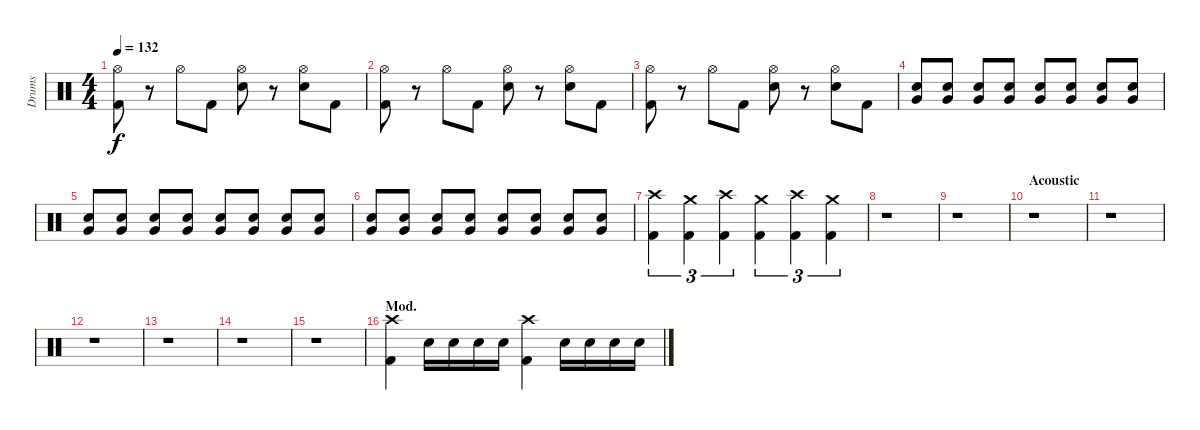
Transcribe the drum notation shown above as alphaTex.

\track ("Drums" "Drums") {instrument percussion}
\staff {score}
\articulation defaults
\ts (4 4)
\tempo 132
\clef neutral
\ks c
("Hi-Hat (open)" "Kick (hit) 2").8{dy f} r.8 "Hi-Hat (open)".8 "Kick (hit) 2".8 ("Hi-Hat (open)" "Snare (hit) 2").8 r.8 ("Hi-Hat (open)" "Snare (hit) 2").8 "Kick (hit) 2".8 |
("Hi-Hat (open)" "Kick (hit) 2").8 r.8 "Hi-Hat (open)".8 "Kick (hit) 2".8 ("Hi-Hat (open)" "Snare (hit) 2").8 r.8 ("Hi-Hat (open)" "Snare (hit) 2").8 "Kick (hit) 2".8 |
("Hi-Hat (open)" "Kick (hit) 2").8 r.8 "Hi-Hat (open)".8 "Kick (hit) 2".8 ("Hi-Hat (open)" "Snare (hit) 2").8 r.8 ("Hi-Hat (open)" "Snare (hit) 2").8 "Kick (hit) 2".8 |
("Very Low Tom (hit)" "Snare (hit) 2").8 ("Very Low Tom (hit)" "Snare (hit) 2").8 ("Very Low Tom (hit)" "Snare (hit) 2").8 ("Very Low Tom (hit)" "Snare (hit) 2").8 ("Very Low Tom (hit)" "Snare (hit) 2").8 ("Very Low Tom (hit)" "Snare (hit) 2").8 ("Very Low Tom (hit)" "Snare (hit) 2").8 ("Very Low Tom (hit)" "Snare (hit) 2").8 |
("Very Low Tom (hit)" "Snare (hit) 2").8 ("Very Low Tom (hit)" "Snare (hit) 2").8 ("Very Low Tom (hit)" "Snare (hit) 2").8 ("Very Low Tom (hit)" "Snare (hit) 2").8 ("Very Low Tom (hit)" "Snare (hit) 2").8 ("Very Low Tom (hit)" "Snare (hit) 2").8 ("Very Low Tom (hit)" "Snare (hit) 2").8 ("Very Low Tom (hit)" "Snare (hit) 2").8 |
("Very Low Tom (hit)" "Snare (hit) 2").8 ("Very Low Tom (hit)" "Snare (hit) 2").8 ("Very Low Tom (hit)" "Snare (hit) 2").8 ("Very Low Tom (hit)" "Snare (hit) 2").8 ("Very Low Tom (hit)" "Snare (hit) 2").8 ("Very Low Tom (hit)" "Snare (hit) 2").8 ("Very Low Tom (hit)" "Snare (hit) 2").8 ("Very Low Tom (hit)" "Snare (hit) 2").8 |
("Crash high (hit)" "Kick (hit) 2").4{tu (3 2)} ("Crash medium (hit)" "Kick (hit) 2").4{tu (3 2)} ("Crash high (hit)" "Kick (hit) 2").4{tu (3 2)} ("Crash medium (hit)" "Kick (hit) 2").4{tu (3 2)} ("Crash high (hit)" "Kick (hit) 2").4{tu (3 2)} ("Crash medium (hit)" "Kick (hit) 2").4{tu (3 2)} |
r.1 |
r.1 |
\section ("" "Acoustic")
r.1 |
r.1 |
r.1 |
r.1 |
r.1 |
r.1 |
\section ("" "Mod.")
("Crash high (hit)" "Kick (hit) 2").4 "Snare (hit) 2".16 "Snare (hit) 2".16 "Snare (hit) 2".16 "Snare (hit) 2".16 ("Crash high (hit)" "Kick (hit) 2").4 "Snare (hit) 2".16 "Snare (hit) 2".16 "Snare (hit) 2".16 "Snare (hit) 2".16
